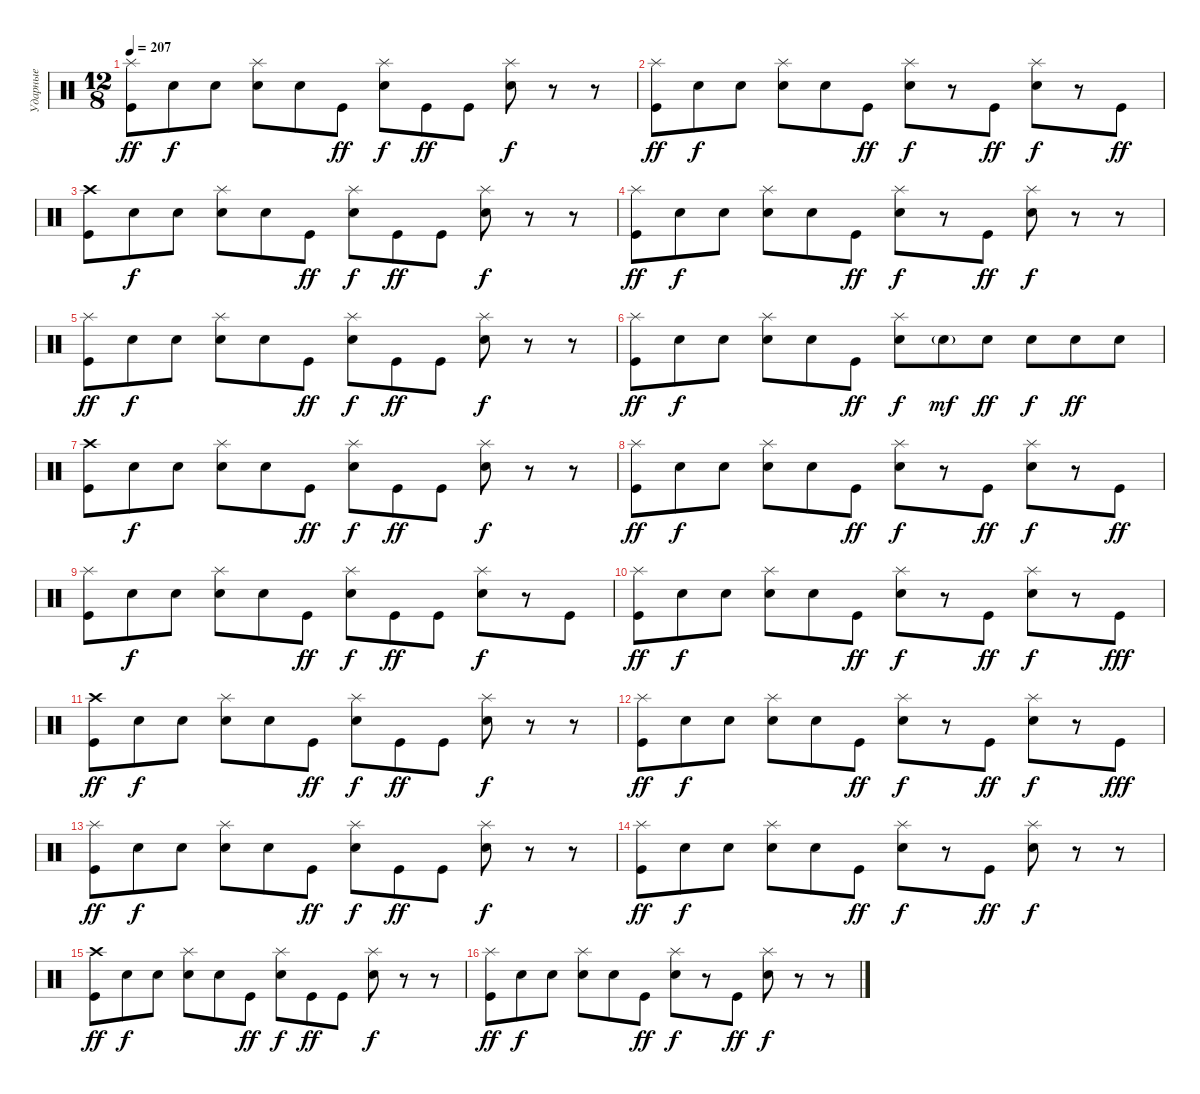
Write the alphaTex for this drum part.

\track ("Ударные" "Ударные") {instrument percussion}
\staff {score}
\articulation defaults
\ts (12 8)
\tempo 207
\clef neutral
\ks c
("Splash (hit)" "Kick (hit)").8{dy ff} "Snare (hit)".8{dy f} "Snare (hit)".8 ("Splash (hit)" "Electric Snare (hit)").8 "Snare (hit)".8 "Kick (hit)".8{dy ff} ("Splash (hit)" "Snare (hit)").8{dy f} "Kick (hit)".8{dy ff} "Kick (hit)".8 ("Splash (hit)" "Electric Snare (hit)").8{dy f} r.8 r.8 |
("Splash (hit)" "Kick (hit)").8{dy ff} "Snare (hit)".8{dy f} "Snare (hit)".8 ("Splash (hit)" "Electric Snare (hit)").8 "Snare (hit)".8 "Kick (hit)".8{dy ff} ("Splash (hit)" "Snare (hit)").8{dy f} r.8 "Kick (hit)".8{dy ff} ("Splash (hit)" "Electric Snare (hit)").8{dy f} r.8 "Kick (hit)".8{dy ff} |
("Crash high (hit)" "Kick (hit)").8 "Snare (hit)".8{dy f} "Snare (hit)".8 ("Splash (hit)" "Electric Snare (hit)").8 "Snare (hit)".8 "Kick (hit)".8{dy ff} ("Splash (hit)" "Snare (hit)").8{dy f} "Kick (hit)".8{dy ff} "Kick (hit)".8 ("Splash (hit)" "Electric Snare (hit)").8{dy f} r.8 r.8 |
("Splash (hit)" "Kick (hit)").8{dy ff} "Snare (hit)".8{dy f} "Snare (hit)".8 ("Splash (hit)" "Electric Snare (hit)").8 "Snare (hit)".8 "Kick (hit)".8{dy ff} ("Splash (hit)" "Snare (hit)").8{dy f} r.8 "Kick (hit)".8{dy ff} ("Splash (hit)" "Electric Snare (hit)").8{dy f} r.8 r.8 |
("Splash (hit)" "Kick (hit)").8{dy ff} "Snare (hit)".8{dy f} "Snare (hit)".8 ("Splash (hit)" "Electric Snare (hit)").8 "Snare (hit)".8 "Kick (hit)".8{dy ff} ("Splash (hit)" "Snare (hit)").8{dy f} "Kick (hit)".8{dy ff} "Kick (hit)".8 ("Splash (hit)" "Electric Snare (hit)").8{dy f} r.8 r.8 |
("Splash (hit)" "Kick (hit)").8{dy ff} "Snare (hit)".8{dy f} "Snare (hit)".8 ("Splash (hit)" "Electric Snare (hit)").8 "Snare (hit)".8 "Kick (hit)".8{dy ff} ("Splash (hit)" "Snare (hit)").8{dy f} "Electric Snare (hit)"{g}.8{dy mf} "Electric Snare (hit)".8{dy ff} "Electric Snare (hit)".8{dy f} "Electric Snare (hit)".8{dy ff} "Electric Snare (hit)".8 |
("Crash high (hit)" "Kick (hit)").8 "Snare (hit)".8{dy f} "Snare (hit)".8 ("Splash (hit)" "Electric Snare (hit)").8 "Snare (hit)".8 "Kick (hit)".8{dy ff} ("Splash (hit)" "Snare (hit)").8{dy f} "Kick (hit)".8{dy ff} "Kick (hit)".8 ("Splash (hit)" "Electric Snare (hit)").8{dy f} r.8 r.8 |
("Splash (hit)" "Kick (hit)").8{dy ff} "Snare (hit)".8{dy f} "Snare (hit)".8 ("Splash (hit)" "Electric Snare (hit)").8 "Snare (hit)".8 "Kick (hit)".8{dy ff} ("Splash (hit)" "Snare (hit)").8{dy f} r.8 "Kick (hit)".8{dy ff} ("Splash (hit)" "Electric Snare (hit)").8{dy f} r.8 "Kick (hit)".8{dy ff} |
("Splash (hit)" "Kick (hit)").8 "Snare (hit)".8{dy f} "Snare (hit)".8 ("Splash (hit)" "Electric Snare (hit)").8 "Snare (hit)".8 "Kick (hit)".8{dy ff} ("Splash (hit)" "Snare (hit)").8{dy f} "Kick (hit)".8{dy ff} "Kick (hit)".8 ("Splash (hit)" "Electric Snare (hit)").8{dy f} r.8 "Kick (hit)".8 |
("Splash (hit)" "Kick (hit)").8{dy ff} "Snare (hit)".8{dy f} "Snare (hit)".8 ("Splash (hit)" "Electric Snare (hit)").8 "Snare (hit)".8 "Kick (hit)".8{dy ff} ("Splash (hit)" "Snare (hit)").8{dy f} r.8 "Kick (hit)".8{dy ff} ("Splash (hit)" "Electric Snare (hit)").8{dy f} r.8 "Kick (hit)".8{dy fff} |
("Crash high (hit)" "Kick (hit)").8{dy ff} "Snare (hit)".8{dy f} "Snare (hit)".8 ("Splash (hit)" "Electric Snare (hit)").8 "Snare (hit)".8 "Kick (hit)".8{dy ff} ("Splash (hit)" "Snare (hit)").8{dy f} "Kick (hit)".8{dy ff} "Kick (hit)".8 ("Splash (hit)" "Electric Snare (hit)").8{dy f} r.8 r.8 |
("Splash (hit)" "Kick (hit)").8{dy ff} "Snare (hit)".8{dy f} "Snare (hit)".8 ("Splash (hit)" "Electric Snare (hit)").8 "Snare (hit)".8 "Kick (hit)".8{dy ff} ("Splash (hit)" "Snare (hit)").8{dy f} r.8 "Kick (hit)".8{dy ff} ("Splash (hit)" "Electric Snare (hit)").8{dy f} r.8 "Kick (hit)".8{dy fff} |
("Splash (hit)" "Kick (hit)").8{dy ff} "Snare (hit)".8{dy f} "Snare (hit)".8 ("Splash (hit)" "Electric Snare (hit)").8 "Snare (hit)".8 "Kick (hit)".8{dy ff} ("Splash (hit)" "Snare (hit)").8{dy f} "Kick (hit)".8{dy ff} "Kick (hit)".8 ("Splash (hit)" "Electric Snare (hit)").8{dy f} r.8 r.8 |
("Splash (hit)" "Kick (hit)").8{dy ff} "Snare (hit)".8{dy f} "Snare (hit)".8 ("Splash (hit)" "Electric Snare (hit)").8 "Snare (hit)".8 "Kick (hit)".8{dy ff} ("Splash (hit)" "Snare (hit)").8{dy f} r.8 "Kick (hit)".8{dy ff} ("Splash (hit)" "Electric Snare (hit)").8{dy f} r.8 r.8 |
("Crash high (hit)" "Kick (hit)").8{dy ff} "Snare (hit)".8{dy f} "Snare (hit)".8 ("Splash (hit)" "Electric Snare (hit)").8 "Snare (hit)".8 "Kick (hit)".8{dy ff} ("Splash (hit)" "Snare (hit)").8{dy f} "Kick (hit)".8{dy ff} "Kick (hit)".8 ("Splash (hit)" "Electric Snare (hit)").8{dy f} r.8 r.8 |
("Splash (hit)" "Kick (hit)").8{dy ff} "Snare (hit)".8{dy f} "Snare (hit)".8 ("Splash (hit)" "Electric Snare (hit)").8 "Snare (hit)".8 "Kick (hit)".8{dy ff} ("Splash (hit)" "Snare (hit)").8{dy f} r.8 "Kick (hit)".8{dy ff} ("Splash (hit)" "Electric Snare (hit)").8{dy f} r.8 r.8
